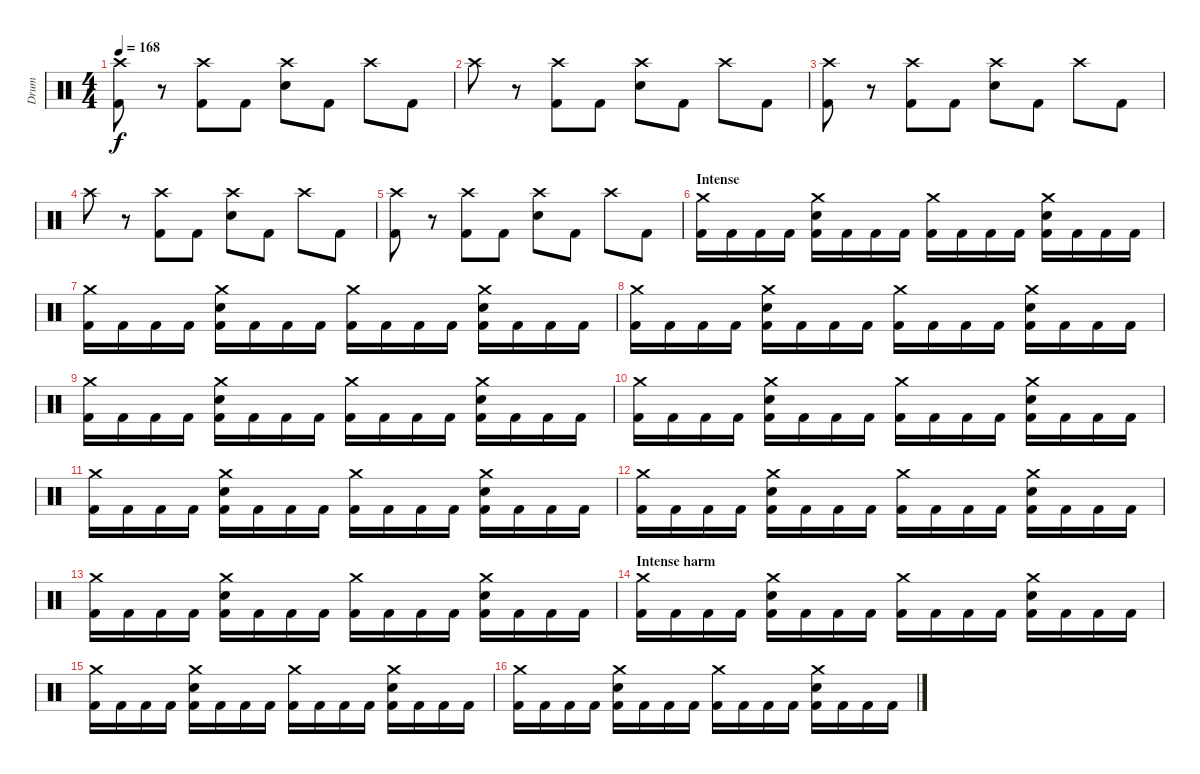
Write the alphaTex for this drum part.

\track ("Drum" "Drum") {instrument percussion}
\staff {score}
\articulation defaults
\ts (4 4)
\tempo 168
\clef neutral
\ks c
("Crash high (hit)" "Kick (hit) 2").8{dy f} r.8 ("Crash high (hit)" "Kick (hit) 2").8 "Kick (hit) 2".8 ("Crash high (hit)" "Electric Snare (hit)").8 "Kick (hit) 2".8 "Crash high (hit)".8 "Kick (hit) 2".8 |
"Crash high (hit)".8 r.8 ("Crash high (hit)" "Kick (hit) 2").8 "Kick (hit) 2".8 ("Crash high (hit)" "Electric Snare (hit)").8 "Kick (hit) 2".8 "Crash high (hit)".8 "Kick (hit) 2".8 |
("Crash high (hit)" "Kick (hit) 2").8 r.8 ("Crash high (hit)" "Kick (hit) 2").8 "Kick (hit) 2".8 ("Crash high (hit)" "Electric Snare (hit)").8 "Kick (hit) 2".8 "Crash high (hit)".8 "Kick (hit) 2".8 |
"Crash high (hit)".8 r.8 ("Crash high (hit)" "Kick (hit) 2").8 "Kick (hit) 2".8 ("Crash high (hit)" "Electric Snare (hit)").8 "Kick (hit) 2".8 "Crash high (hit)".8 "Kick (hit) 2".8 |
("Crash high (hit)" "Kick (hit) 2").8 r.8 ("Crash high (hit)" "Kick (hit) 2").8 "Kick (hit) 2".8 ("Crash high (hit)" "Electric Snare (hit)").8 "Kick (hit) 2".8 "Crash high (hit)".8 "Kick (hit) 2".8 |
\section ("" "Intense")
("Crash medium (hit)" "Kick (hit) 2").16 "Kick (hit) 2".16 "Kick (hit) 2".16 "Kick (hit) 2".16 ("Crash medium (hit)" "Electric Snare (hit)" "Kick (hit) 2").16 "Kick (hit) 2".16 "Kick (hit) 2".16 "Kick (hit) 2".16 ("Crash medium (hit)" "Kick (hit) 2").16 "Kick (hit) 2".16 "Kick (hit) 2".16 "Kick (hit) 2".16 ("Crash medium (hit)" "Electric Snare (hit)" "Kick (hit) 2").16 "Kick (hit) 2".16 "Kick (hit) 2".16 "Kick (hit) 2".16 |
("Crash medium (hit)" "Kick (hit) 2").16 "Kick (hit) 2".16 "Kick (hit) 2".16 "Kick (hit) 2".16 ("Crash medium (hit)" "Electric Snare (hit)" "Kick (hit) 2").16 "Kick (hit) 2".16 "Kick (hit) 2".16 "Kick (hit) 2".16 ("Crash medium (hit)" "Kick (hit) 2").16 "Kick (hit) 2".16 "Kick (hit) 2".16 "Kick (hit) 2".16 ("Crash medium (hit)" "Electric Snare (hit)" "Kick (hit) 2").16 "Kick (hit) 2".16 "Kick (hit) 2".16 "Kick (hit) 2".16 |
("Crash medium (hit)" "Kick (hit) 2").16 "Kick (hit) 2".16 "Kick (hit) 2".16 "Kick (hit) 2".16 ("Crash medium (hit)" "Electric Snare (hit)" "Kick (hit) 2").16 "Kick (hit) 2".16 "Kick (hit) 2".16 "Kick (hit) 2".16 ("Crash medium (hit)" "Kick (hit) 2").16 "Kick (hit) 2".16 "Kick (hit) 2".16 "Kick (hit) 2".16 ("Crash medium (hit)" "Electric Snare (hit)" "Kick (hit) 2").16 "Kick (hit) 2".16 "Kick (hit) 2".16 "Kick (hit) 2".16 |
("Crash medium (hit)" "Kick (hit) 2").16 "Kick (hit) 2".16 "Kick (hit) 2".16 "Kick (hit) 2".16 ("Crash medium (hit)" "Electric Snare (hit)" "Kick (hit) 2").16 "Kick (hit) 2".16 "Kick (hit) 2".16 "Kick (hit) 2".16 ("Crash medium (hit)" "Kick (hit) 2").16 "Kick (hit) 2".16 "Kick (hit) 2".16 "Kick (hit) 2".16 ("Crash medium (hit)" "Electric Snare (hit)" "Kick (hit) 2").16 "Kick (hit) 2".16 "Kick (hit) 2".16 "Kick (hit) 2".16 |
("Crash medium (hit)" "Kick (hit) 2").16 "Kick (hit) 2".16 "Kick (hit) 2".16 "Kick (hit) 2".16 ("Crash medium (hit)" "Electric Snare (hit)" "Kick (hit) 2").16 "Kick (hit) 2".16 "Kick (hit) 2".16 "Kick (hit) 2".16 ("Crash medium (hit)" "Kick (hit) 2").16 "Kick (hit) 2".16 "Kick (hit) 2".16 "Kick (hit) 2".16 ("Crash medium (hit)" "Electric Snare (hit)" "Kick (hit) 2").16 "Kick (hit) 2".16 "Kick (hit) 2".16 "Kick (hit) 2".16 |
("Crash medium (hit)" "Kick (hit) 2").16 "Kick (hit) 2".16 "Kick (hit) 2".16 "Kick (hit) 2".16 ("Crash medium (hit)" "Electric Snare (hit)" "Kick (hit) 2").16 "Kick (hit) 2".16 "Kick (hit) 2".16 "Kick (hit) 2".16 ("Crash medium (hit)" "Kick (hit) 2").16 "Kick (hit) 2".16 "Kick (hit) 2".16 "Kick (hit) 2".16 ("Crash medium (hit)" "Electric Snare (hit)" "Kick (hit) 2").16 "Kick (hit) 2".16 "Kick (hit) 2".16 "Kick (hit) 2".16 |
("Crash medium (hit)" "Kick (hit) 2").16 "Kick (hit) 2".16 "Kick (hit) 2".16 "Kick (hit) 2".16 ("Crash medium (hit)" "Electric Snare (hit)" "Kick (hit) 2").16 "Kick (hit) 2".16 "Kick (hit) 2".16 "Kick (hit) 2".16 ("Crash medium (hit)" "Kick (hit) 2").16 "Kick (hit) 2".16 "Kick (hit) 2".16 "Kick (hit) 2".16 ("Crash medium (hit)" "Electric Snare (hit)" "Kick (hit) 2").16 "Kick (hit) 2".16 "Kick (hit) 2".16 "Kick (hit) 2".16 |
("Crash medium (hit)" "Kick (hit) 2").16 "Kick (hit) 2".16 "Kick (hit) 2".16 "Kick (hit) 2".16 ("Crash medium (hit)" "Electric Snare (hit)" "Kick (hit) 2").16 "Kick (hit) 2".16 "Kick (hit) 2".16 "Kick (hit) 2".16 ("Crash medium (hit)" "Kick (hit) 2").16 "Kick (hit) 2".16 "Kick (hit) 2".16 "Kick (hit) 2".16 ("Crash medium (hit)" "Electric Snare (hit)" "Kick (hit) 2").16 "Kick (hit) 2".16 "Kick (hit) 2".16 "Kick (hit) 2".16 |
\section ("" "Intense harm")
("Crash medium (hit)" "Kick (hit) 2").16 "Kick (hit) 2".16 "Kick (hit) 2".16 "Kick (hit) 2".16 ("Crash medium (hit)" "Electric Snare (hit)" "Kick (hit) 2").16 "Kick (hit) 2".16 "Kick (hit) 2".16 "Kick (hit) 2".16 ("Crash medium (hit)" "Kick (hit) 2").16 "Kick (hit) 2".16 "Kick (hit) 2".16 "Kick (hit) 2".16 ("Crash medium (hit)" "Electric Snare (hit)" "Kick (hit) 2").16 "Kick (hit) 2".16 "Kick (hit) 2".16 "Kick (hit) 2".16 |
("Crash medium (hit)" "Kick (hit) 2").16 "Kick (hit) 2".16 "Kick (hit) 2".16 "Kick (hit) 2".16 ("Crash medium (hit)" "Electric Snare (hit)" "Kick (hit) 2").16 "Kick (hit) 2".16 "Kick (hit) 2".16 "Kick (hit) 2".16 ("Crash medium (hit)" "Kick (hit) 2").16 "Kick (hit) 2".16 "Kick (hit) 2".16 "Kick (hit) 2".16 ("Crash medium (hit)" "Electric Snare (hit)" "Kick (hit) 2").16 "Kick (hit) 2".16 "Kick (hit) 2".16 "Kick (hit) 2".16 |
("Crash medium (hit)" "Kick (hit) 2").16 "Kick (hit) 2".16 "Kick (hit) 2".16 "Kick (hit) 2".16 ("Crash medium (hit)" "Electric Snare (hit)" "Kick (hit) 2").16 "Kick (hit) 2".16 "Kick (hit) 2".16 "Kick (hit) 2".16 ("Crash medium (hit)" "Kick (hit) 2").16 "Kick (hit) 2".16 "Kick (hit) 2".16 "Kick (hit) 2".16 ("Crash medium (hit)" "Electric Snare (hit)" "Kick (hit) 2").16 "Kick (hit) 2".16 "Kick (hit) 2".16 "Kick (hit) 2".16
